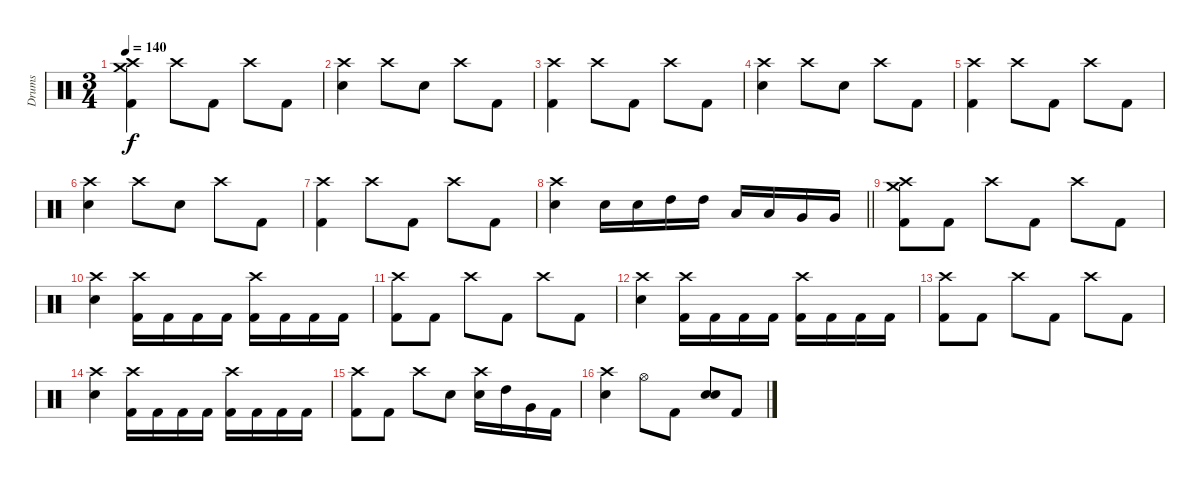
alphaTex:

\track ("Drums" "Drums") {instrument percussion}
\staff {score}
\articulation defaults
\ts (3 4)
\tempo 140
\clef neutral
\ks c
("Kick (hit) 2" "Crash high (hit)" "Crash medium (hit)").4{dy f} "Crash high (hit)".8 "Kick (hit) 2".8 "Crash high (hit)".8 "Kick (hit) 2".8 |
("Electric Snare (hit)" "Crash high (hit)").4 "Crash high (hit)".8 "Electric Snare (hit)".8 "Crash high (hit)".8 "Kick (hit) 2".8 |
("Kick (hit) 2" "Crash high (hit)").4 "Crash high (hit)".8 "Kick (hit) 2".8 "Crash high (hit)".8 "Kick (hit) 2".8 |
("Electric Snare (hit)" "Crash high (hit)").4 "Crash high (hit)".8 "Electric Snare (hit)".8 "Crash high (hit)".8 "Kick (hit) 2".8 |
("Kick (hit) 2" "Crash high (hit)").4 "Crash high (hit)".8 "Kick (hit) 2".8 "Crash high (hit)".8 "Kick (hit) 2".8 |
("Electric Snare (hit)" "Crash high (hit)").4 "Crash high (hit)".8 "Electric Snare (hit)".8 "Crash high (hit)".8 "Kick (hit) 2".8 |
("Kick (hit) 2" "Crash high (hit)").4 "Crash high (hit)".8 "Kick (hit) 2".8 "Crash high (hit)".8 "Kick (hit) 2".8 |
\barLineRight lightlight
("Electric Snare (hit)" "Crash high (hit)").4 "Electric Snare (hit)".16 "Electric Snare (hit)".16 "High Tom (hit)".16 "High Tom (hit)".16 "Low Tom (hit)".16 "Low Tom (hit)".16 "Very Low Tom (hit)".16 "Very Low Tom (hit)".16 |
("Kick (hit) 2" "Crash high (hit)" "Crash medium (hit)").8 "Kick (hit) 2".8 "Crash high (hit)".8 "Kick (hit) 2".8 "Crash high (hit)".8 "Kick (hit) 2".8 |
("Electric Snare (hit)" "Crash high (hit)").4 ("Kick (hit) 2" "Crash high (hit)").16 "Kick (hit) 2".16 "Kick (hit) 2".16 "Kick (hit) 2".16 ("Kick (hit) 2" "Crash high (hit)").16 "Kick (hit) 2".16 "Kick (hit) 2".16 "Kick (hit) 2".16 |
("Kick (hit) 2" "Crash high (hit)").8 "Kick (hit) 2".8 "Crash high (hit)".8 "Kick (hit) 2".8 "Crash high (hit)".8 "Kick (hit) 2".8 |
("Electric Snare (hit)" "Crash high (hit)").4 ("Kick (hit) 2" "Crash high (hit)").16 "Kick (hit) 2".16 "Kick (hit) 2".16 "Kick (hit) 2".16 ("Kick (hit) 2" "Crash high (hit)").16 "Kick (hit) 2".16 "Kick (hit) 2".16 "Kick (hit) 2".16 |
("Kick (hit) 2" "Crash high (hit)").8 "Kick (hit) 2".8 "Crash high (hit)".8 "Kick (hit) 2".8 "Crash high (hit)".8 "Kick (hit) 2".8 |
("Electric Snare (hit)" "Crash high (hit)").4 ("Kick (hit) 2" "Crash high (hit)").16 "Kick (hit) 2".16 "Kick (hit) 2".16 "Kick (hit) 2".16 ("Kick (hit) 2" "Crash high (hit)").16 "Kick (hit) 2".16 "Kick (hit) 2".16 "Kick (hit) 2".16 |
("Kick (hit) 2" "Crash high (hit)").8 "Kick (hit) 2".8 "Crash high (hit)".8 "Electric Snare (hit)".8 ("Electric Snare (hit)" "Crash high (hit)").16 "High Tom (hit)".16 "Very Low Tom (hit)".16 "Kick (hit) 2".16 |
("Electric Snare (hit)" "Crash high (hit)").4 "Hi-Hat (open)".8 "Kick (hit) 2".8 ("Electric Snare (hit)" "Electric Snare (hit)").8 "Kick (hit) 2".8
